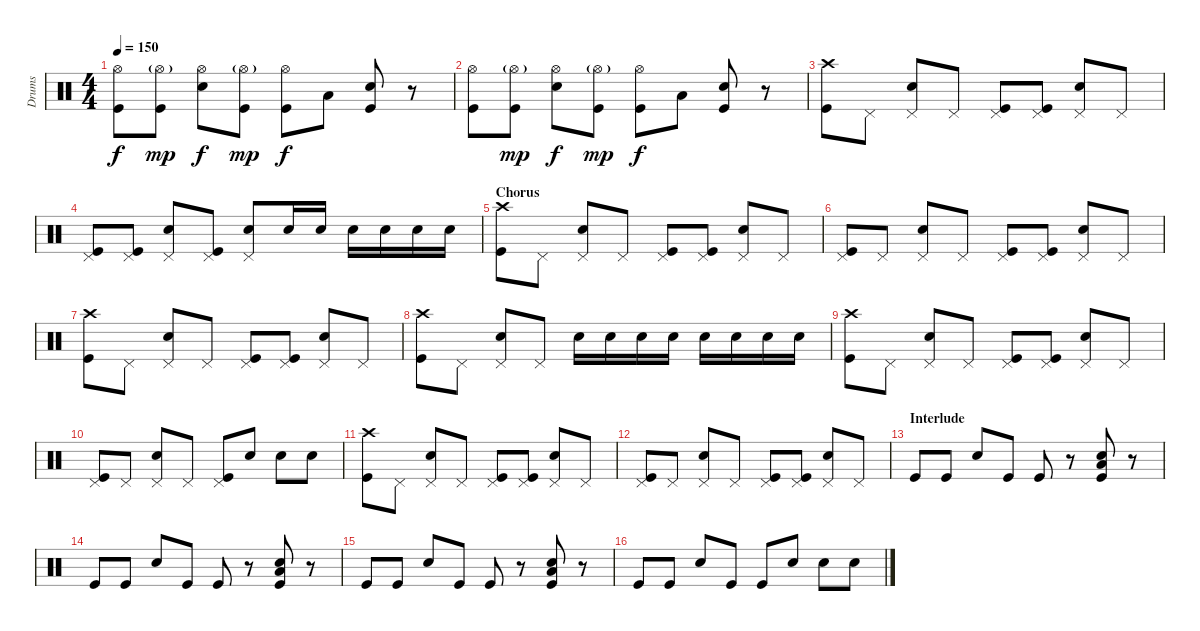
\track ("Drums" "Drums") {instrument percussion}
\staff {score}
\articulation defaults
\ts (4 4)
\tempo 150
\clef neutral
\ks c
("Hi-Hat (open)" "Kick (hit)").8{dy f} ("Hi-Hat (open)"{g} "Kick (hit)").8{dy mp} ("Hi-Hat (open)" "Snare (hit) 2").8{dy f} ("Hi-Hat (open)"{g} "Kick (hit)").8{dy mp} ("Hi-Hat (open)" "Kick (hit)").8{dy f} "Low Floor Tom (hit)".8 ("Snare (hit) 2" "Kick (hit)").8 r.8 |
("Hi-Hat (open)" "Kick (hit)").8 ("Hi-Hat (open)"{g} "Kick (hit)").8{dy mp} ("Hi-Hat (open)" "Snare (hit) 2").8{dy f} ("Hi-Hat (open)"{g} "Kick (hit)").8{dy mp} ("Hi-Hat (open)" "Kick (hit)").8{dy f} "Low Floor Tom (hit)".8 ("Snare (hit) 2" "Kick (hit)").8 r.8 |
("Crash high (hit)" "Kick (hit)").8 "Pedal Hi-Hat (hit)".8 ("Pedal Hi-Hat (hit)" "Snare (hit) 2").8 "Pedal Hi-Hat (hit)".8 ("Pedal Hi-Hat (hit)" "Kick (hit)").8 ("Pedal Hi-Hat (hit)" "Kick (hit)").8 ("Pedal Hi-Hat (hit)" "Snare (hit) 2").8 "Pedal Hi-Hat (hit)".8 |
("Pedal Hi-Hat (hit)" "Kick (hit)").8 ("Pedal Hi-Hat (hit)" "Kick (hit)").8 ("Pedal Hi-Hat (hit)" "Snare (hit) 2").8 ("Pedal Hi-Hat (hit)" "Kick (hit)").8 ("Pedal Hi-Hat (hit)" "Snare (hit) 2").8 "Snare (hit) 2".16 "Snare (hit) 2".16 "Snare (hit) 2".16 "Snare (hit) 2".16 "Snare (hit) 2".16 "Snare (hit) 2".16 |
\section ("" "Chorus")
("Crash high (hit)" "Kick (hit)").8 "Pedal Hi-Hat (hit)".8 ("Pedal Hi-Hat (hit)" "Snare (hit) 2").8 "Pedal Hi-Hat (hit)".8 ("Pedal Hi-Hat (hit)" "Kick (hit)").8 ("Pedal Hi-Hat (hit)" "Kick (hit)").8 ("Pedal Hi-Hat (hit)" "Snare (hit) 2").8 "Pedal Hi-Hat (hit)".8 |
("Pedal Hi-Hat (hit)" "Kick (hit)").8 "Pedal Hi-Hat (hit)".8 ("Pedal Hi-Hat (hit)" "Snare (hit) 2").8 "Pedal Hi-Hat (hit)".8 ("Pedal Hi-Hat (hit)" "Kick (hit)").8 ("Pedal Hi-Hat (hit)" "Kick (hit)").8 ("Pedal Hi-Hat (hit)" "Snare (hit) 2").8 "Pedal Hi-Hat (hit)".8 |
("Crash high (hit)" "Kick (hit)").8 "Pedal Hi-Hat (hit)".8 ("Pedal Hi-Hat (hit)" "Snare (hit) 2").8 "Pedal Hi-Hat (hit)".8 ("Pedal Hi-Hat (hit)" "Kick (hit)").8 ("Pedal Hi-Hat (hit)" "Kick (hit)").8 ("Pedal Hi-Hat (hit)" "Snare (hit) 2").8 "Pedal Hi-Hat (hit)".8 |
("Crash high (hit)" "Kick (hit)").8 "Pedal Hi-Hat (hit)".8 ("Pedal Hi-Hat (hit)" "Snare (hit) 2").8 "Pedal Hi-Hat (hit)".8 "Snare (hit) 2".16 "Snare (hit) 2".16 "Snare (hit) 2".16 "Snare (hit) 2".16 "Snare (hit) 2".16 "Snare (hit) 2".16 "Snare (hit) 2".16 "Snare (hit) 2".16 |
("Crash high (hit)" "Kick (hit)").8 "Pedal Hi-Hat (hit)".8 ("Pedal Hi-Hat (hit)" "Snare (hit) 2").8 "Pedal Hi-Hat (hit)".8 ("Pedal Hi-Hat (hit)" "Kick (hit)").8 ("Pedal Hi-Hat (hit)" "Kick (hit)").8 ("Pedal Hi-Hat (hit)" "Snare (hit) 2").8 "Pedal Hi-Hat (hit)".8 |
("Pedal Hi-Hat (hit)" "Kick (hit)").8 "Pedal Hi-Hat (hit)".8 ("Pedal Hi-Hat (hit)" "Snare (hit) 2").8 "Pedal Hi-Hat (hit)".8 ("Pedal Hi-Hat (hit)" "Kick (hit)").8 "Snare (hit) 2".8 "Snare (hit) 2".8 "Snare (hit) 2".8 |
("Crash high (hit)" "Kick (hit)").8 "Pedal Hi-Hat (hit)".8 ("Pedal Hi-Hat (hit)" "Snare (hit) 2").8 "Pedal Hi-Hat (hit)".8 ("Pedal Hi-Hat (hit)" "Kick (hit)").8 ("Pedal Hi-Hat (hit)" "Kick (hit)").8 ("Pedal Hi-Hat (hit)" "Snare (hit) 2").8 "Pedal Hi-Hat (hit)".8 |
("Pedal Hi-Hat (hit)" "Kick (hit)").8 "Pedal Hi-Hat (hit)".8 ("Pedal Hi-Hat (hit)" "Snare (hit) 2").8 "Pedal Hi-Hat (hit)".8 ("Pedal Hi-Hat (hit)" "Kick (hit)").8 ("Pedal Hi-Hat (hit)" "Kick (hit)").8 ("Pedal Hi-Hat (hit)" "Snare (hit) 2").8 "Pedal Hi-Hat (hit)".8 |
\section ("" "Interlude")
"Kick (hit)".8 "Kick (hit)".8 "Snare (hit) 2".8 "Kick (hit)".8 "Kick (hit)".8 r.8 ("Snare (hit) 2" "Kick (hit)" "Low Floor Tom (hit)").8 r.8 |
"Kick (hit)".8 "Kick (hit)".8 "Snare (hit) 2".8 "Kick (hit)".8 "Kick (hit)".8 r.8 ("Snare (hit) 2" "Kick (hit)" "Low Floor Tom (hit)").8 r.8 |
"Kick (hit)".8 "Kick (hit)".8 "Snare (hit) 2".8 "Kick (hit)".8 "Kick (hit)".8 r.8 ("Snare (hit) 2" "Kick (hit)" "Low Floor Tom (hit)").8 r.8 |
"Kick (hit)".8 "Kick (hit)".8 "Snare (hit) 2".8 "Kick (hit)".8 "Kick (hit)".8 "Snare (hit) 2".8 "Snare (hit) 2".8 "Snare (hit) 2".8
